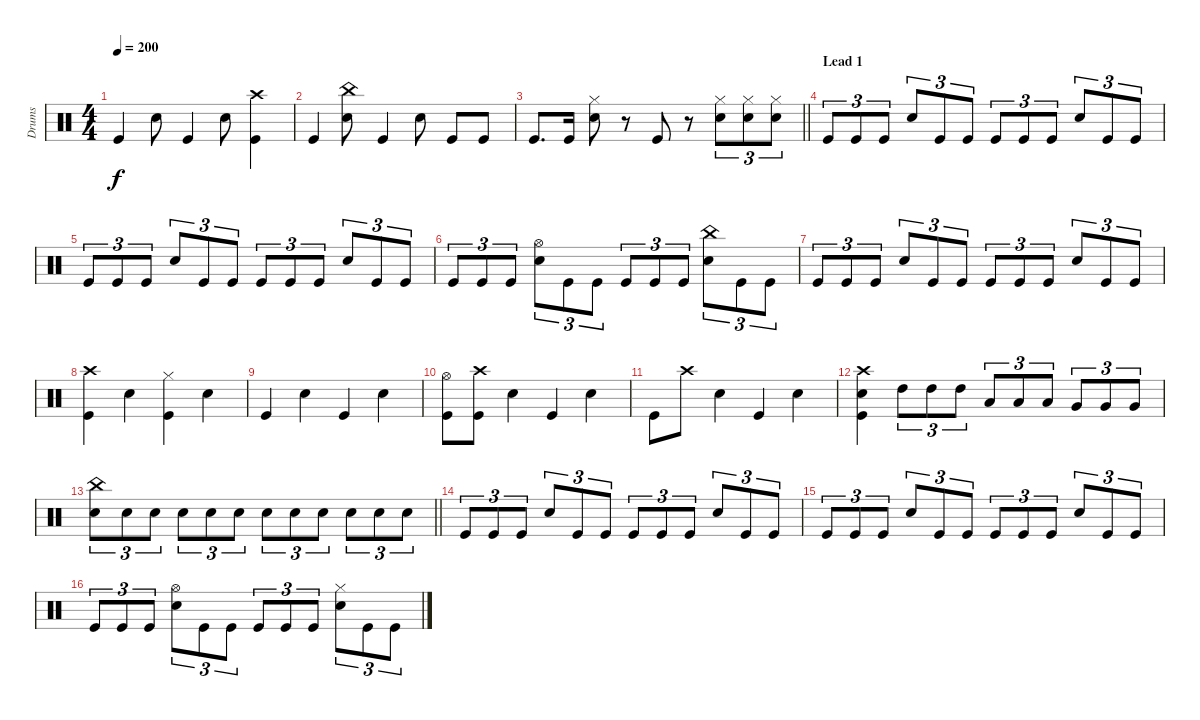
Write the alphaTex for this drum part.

\track ("Drums" "Drums") {instrument percussion}
\staff {score}
\articulation defaults
\ts (4 4)
\tempo 200
\clef neutral
\ks c "Kick (hit)".4{dy f} "Snare (hit) 2".8 "Kick (hit)".4 "Snare (hit) 2".8
("Crash high (hit)" "Kick (hit)").4 |
"Kick (hit)".4 ("China (hit)" "Snare (hit) 2").8 "Kick (hit)".4 "Snare (hit) 2".8 "Kick (hit)".8 "Kick (hit)".8 |
\barLineRight lightlight "Kick (hit)".8{d} "Kick (hit)".16
("Hi-Hat (closed)" "Snare (hit) 2").8 r.8 "Kick (hit)".8 r.8 ("Hi-Hat (closed)" "Snare (hit) 2").8{tu (3 2)} ("Hi-Hat (closed)" "Snare (hit) 2").8{tu (3 2)} ("Hi-Hat (closed)" "Snare (hit) 2").8{tu (3 2)} |
\section ("" "Lead 1")
"Kick (hit)".8{tu (3 2)} "Kick (hit)".8{tu (3 2)} "Kick (hit)".8{tu (3 2)} "Snare (hit) 2".8{tu (3 2)} "Kick (hit)".8{tu (3 2)} "Kick (hit)".8{tu (3 2)} "Kick (hit)".8{tu (3 2)} "Kick (hit)".8{tu (3 2)} "Kick (hit)".8{tu (3 2)} "Snare (hit) 2".8{tu (3 2)} "Kick (hit)".8{tu (3 2)} "Kick (hit)".8{tu (3 2)} |
"Kick (hit)".8{tu (3 2)} "Kick (hit)".8{tu (3 2)} "Kick (hit)".8{tu (3 2)} "Snare (hit) 2".8{tu (3 2)} "Kick (hit)".8{tu (3 2)} "Kick (hit)".8{tu (3 2)} "Kick (hit)".8{tu (3 2)} "Kick (hit)".8{tu (3 2)} "Kick (hit)".8{tu (3 2)} "Snare (hit) 2".8{tu (3 2)} "Kick (hit)".8{tu (3 2)} "Kick (hit)".8{tu (3 2)} |
"Kick (hit)".8{tu (3 2)} "Kick (hit)".8{tu (3 2)} "Kick (hit)".8{tu (3 2)} ("Hi-Hat (open)" "Snare (hit) 2").8{tu (3 2)} "Kick (hit)".8{tu (3 2)} "Kick (hit)".8{tu (3 2)} "Kick (hit)".8{tu (3 2)} "Kick (hit)".8{tu (3 2)} "Kick (hit)".8{tu (3 2)} ("China (hit)" "Snare (hit) 2").8{tu (3 2)} "Kick (hit)".8{tu (3 2)} "Kick (hit)".8{tu (3 2)} |
"Kick (hit)".8{tu (3 2)} "Kick (hit)".8{tu (3 2)} "Kick (hit)".8{tu (3 2)} "Snare (hit) 2".8{tu (3 2)} "Kick (hit)".8{tu (3 2)} "Kick (hit)".8{tu (3 2)} "Kick (hit)".8{tu (3 2)} "Kick (hit)".8{tu (3 2)} "Kick (hit)".8{tu (3 2)} "Snare (hit) 2".8{tu (3 2)} "Kick (hit)".8{tu (3 2)} "Kick (hit)".8{tu (3 2)} |
("Crash high (hit)" "Kick (hit)").4 "Snare (hit) 2".4 ("Hi-Hat (closed)" "Kick (hit)").4 "Snare (hit) 2".4 |
"Kick (hit)".4 "Snare (hit) 2".4 "Kick (hit)".4 "Snare (hit) 2".4 |
("Hi-Hat (open)" "Kick (hit)").8 ("Crash high (hit)" "Kick (hit)").8 "Snare (hit) 2".4 "Kick (hit)".4 "Snare (hit) 2".4 |
"Kick (hit)".8 "Crash high (hit)".8 "Snare (hit) 2".4 "Kick (hit)".4 "Snare (hit) 2".4 |
("Crash high (hit)" "Snare (hit) 2" "Kick (hit)").4 "High Tom (hit)".8{tu (3 2)} "High Tom (hit)".8{tu (3 2)} "High Tom (hit)".8{tu (3 2)} "Low Tom (hit)".8{tu (3 2)} "Low Tom (hit)".8{tu (3 2)} "Low Tom (hit)".8{tu (3 2)} "Very Low Tom (hit)".8{tu (3 2)} "Very Low Tom (hit)".8{tu (3 2)} "Very Low Tom (hit)".8{tu (3 2)} |
\barLineRight lightlight
("China (hit)" "Snare (hit) 2").8{tu (3 2)} "Snare (hit) 2".8{tu (3 2)} "Snare (hit) 2".8{tu (3 2)} "Snare (hit) 2".8{tu (3 2)} "Snare (hit) 2".8{tu (3 2)} "Snare (hit) 2".8{tu (3 2)} "Snare (hit) 2".8{tu (3 2)} "Snare (hit) 2".8{tu (3 2)} "Snare (hit) 2".8{tu (3 2)} "Snare (hit) 2".8{tu (3 2)} "Snare (hit) 2".8{tu (3 2)} "Snare (hit) 2".8{tu (3 2)} |
"Kick (hit)".8{tu (3 2)} "Kick (hit)".8{tu (3 2)} "Kick (hit)".8{tu (3 2)} "Snare (hit) 2".8{tu (3 2)} "Kick (hit)".8{tu (3 2)} "Kick (hit)".8{tu (3 2)} "Kick (hit)".8{tu (3 2)} "Kick (hit)".8{tu (3 2)} "Kick (hit)".8{tu (3 2)} "Snare (hit) 2".8{tu (3 2)} "Kick (hit)".8{tu (3 2)} "Kick (hit)".8{tu (3 2)} |
"Kick (hit)".8{tu (3 2)} "Kick (hit)".8{tu (3 2)} "Kick (hit)".8{tu (3 2)} "Snare (hit) 2".8{tu (3 2)} "Kick (hit)".8{tu (3 2)} "Kick (hit)".8{tu (3 2)} "Kick (hit)".8{tu (3 2)} "Kick (hit)".8{tu (3 2)} "Kick (hit)".8{tu (3 2)} "Snare (hit) 2".8{tu (3 2)} "Kick (hit)".8{tu (3 2)} "Kick (hit)".8{tu (3 2)} |
"Kick (hit)".8{tu (3 2)} "Kick (hit)".8{tu (3 2)} "Kick (hit)".8{tu (3 2)} ("Hi-Hat (open)" "Snare (hit) 2").8{tu (3 2)} "Kick (hit)".8{tu (3 2)} "Kick (hit)".8{tu (3 2)} "Kick (hit)".8{tu (3 2)} "Kick (hit)".8{tu (3 2)} "Kick (hit)".8{tu (3 2)} ("Hi-Hat (closed)" "Snare (hit) 2").8{tu (3 2)} "Kick (hit)".8{tu (3 2)} "Kick (hit)".8{tu (3 2)}
